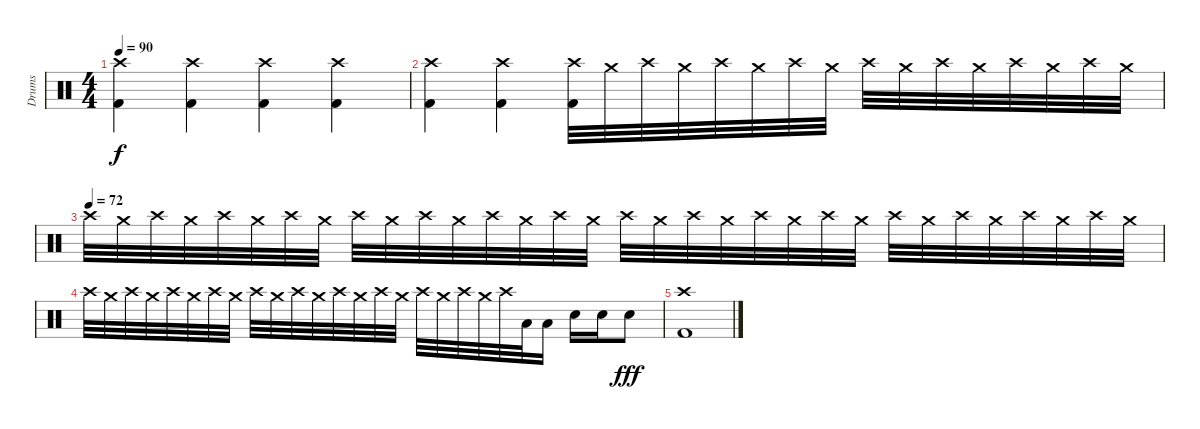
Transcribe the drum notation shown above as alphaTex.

\track ("Drums" "Drums") {instrument percussion}
\staff {score}
\articulation defaults
\ts (4 4)
\tempo 90
\clef neutral
\ks c
("Crash high (hit)" "Kick (hit) 2").4{dy f} ("Crash high (hit)" "Kick (hit) 2").4 ("Crash high (hit)" "Kick (hit) 2").4 ("Crash high (hit)" "Kick (hit) 2").4 |
("Crash high (hit)" "Kick (hit) 2").4 ("Crash high (hit)" "Kick (hit) 2").4 ("Crash high (hit)" "Kick (hit) 2").32 "Crash medium (hit)".32{volume 8} "Crash high (hit)".32 "Crash medium (hit)".32 "Crash high (hit)".32 "Crash medium (hit)".32 "Crash high (hit)".32 "Crash medium (hit)".32 "Crash high (hit)".32 "Crash medium (hit)".32 "Crash high (hit)".32 "Crash medium (hit)".32 "Crash high (hit)".32 "Crash medium (hit)".32 "Crash high (hit)".32 "Crash medium (hit)".32 |
\tempo (72)
"Crash high (hit)".32 "Crash medium (hit)".32 "Crash high (hit)".32 "Crash medium (hit)".32 "Crash high (hit)".32 "Crash medium (hit)".32 "Crash high (hit)".32 "Crash medium (hit)".32 "Crash high (hit)".32 "Crash medium (hit)".32 "Crash high (hit)".32 "Crash medium (hit)".32 "Crash high (hit)".32 "Crash medium (hit)".32 "Crash high (hit)".32 "Crash medium (hit)".32 "Crash high (hit)".32 "Crash medium (hit)".32 "Crash high (hit)".32 "Crash medium (hit)".32 "Crash high (hit)".32 "Crash medium (hit)".32 "Crash high (hit)".32 "Crash medium (hit)".32 "Crash high (hit)".32 "Crash medium (hit)".32 "Crash high (hit)".32 "Crash medium (hit)".32 "Crash high (hit)".32 "Crash medium (hit)".32 "Crash high (hit)".32 "Crash medium (hit)".32 |
"Crash high (hit)".32 "Crash medium (hit)".32 "Crash high (hit)".32 "Crash medium (hit)".32 "Crash high (hit)".32 "Crash medium (hit)".32 "Crash high (hit)".32 "Crash medium (hit)".32 "Crash high (hit)".32 "Crash medium (hit)".32 "Crash high (hit)".32 "Crash medium (hit)".32 "Crash high (hit)".32 "Crash medium (hit)".32 "Crash high (hit)".32 "Crash medium (hit)".32 "Crash high (hit)".32 "Crash medium (hit)".32 "Crash high (hit)".32 "Crash medium (hit)".32 "Crash high (hit)".32 "Low Tom (hit)".32 "Low Tom (hit)".16 "Snare (hit) 2".16 "Snare (hit) 2".16 "Snare (hit) 2".8{dy fff} |
("Crash high (hit)" "Kick (hit) 2").1
